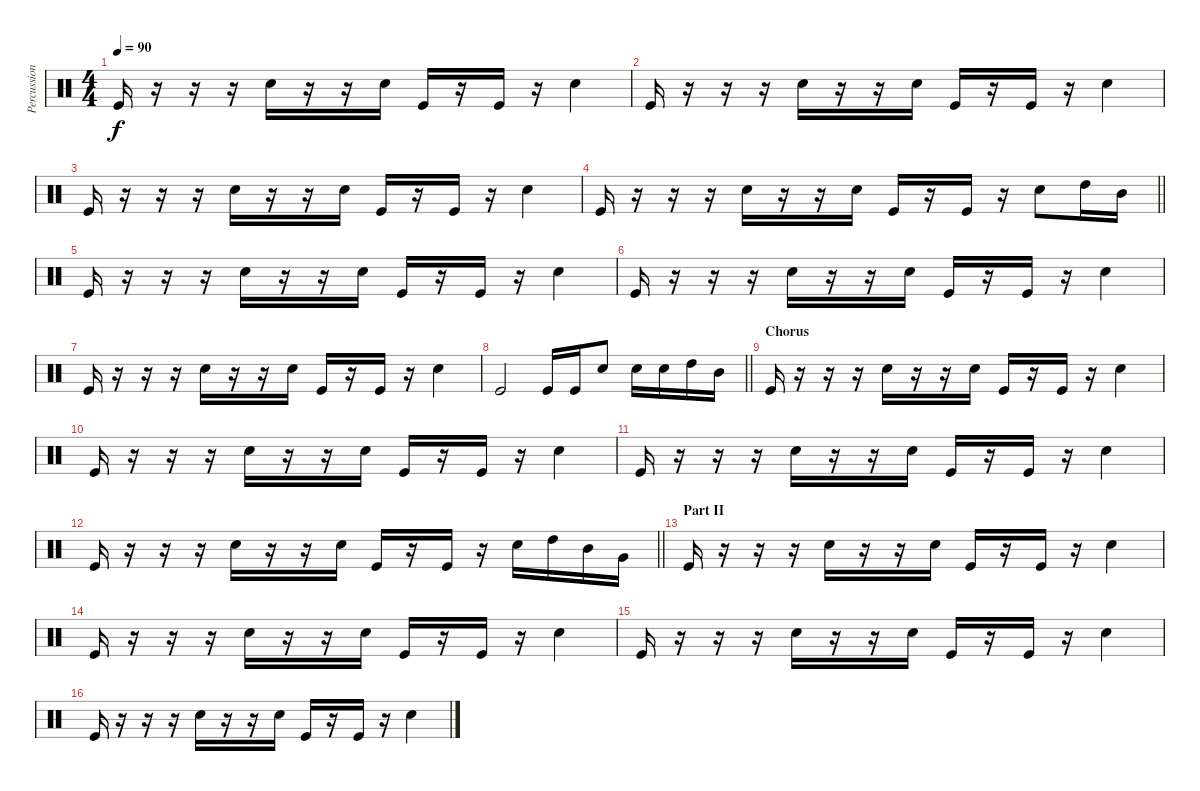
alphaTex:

\track ("Percussion" "Percussion") {instrument percussion}
\staff
\articulation defaults
\ts (4 4)
\tempo 90
\clef neutral
\ks c "Kick (hit)".16{dy f}
r.16 r.16 r.16 "Electric Snare (hit)".16 r.16 r.16 "Electric Snare (hit)".16 "Kick (hit)".16 r.16 "Kick (hit)".16 r.16 "Electric Snare (hit)".4 |
"Kick (hit)".16 r.16 r.16 r.16 "Electric Snare (hit)".16 r.16 r.16 "Electric Snare (hit)".16 "Kick (hit)".16 r.16 "Kick (hit)".16 r.16 "Electric Snare (hit)".4 |
"Kick (hit)".16 r.16 r.16 r.16 "Electric Snare (hit)".16 r.16 r.16 "Electric Snare (hit)".16 "Kick (hit)".16 r.16 "Kick (hit)".16 r.16 "Electric Snare (hit)".4 |
\barLineRight lightlight "Kick (hit)".16
r.16 r.16 r.16 "Electric Snare (hit)".16 r.16 r.16 "Electric Snare (hit)".16 "Kick (hit)".16 r.16 "Kick (hit)".16 r.16 "Electric Snare (hit)".8 "High Tom (hit)".16 "Mid Tom (hit)".16 |
"Kick (hit)".16 r.16 r.16 r.16 "Electric Snare (hit)".16 r.16 r.16 "Electric Snare (hit)".16 "Kick (hit)".16 r.16 "Kick (hit)".16 r.16 "Electric Snare (hit)".4 |
"Kick (hit)".16 r.16 r.16 r.16 "Electric Snare (hit)".16 r.16 r.16 "Electric Snare (hit)".16 "Kick (hit)".16 r.16 "Kick (hit)".16 r.16 "Electric Snare (hit)".4 |
"Kick (hit)".16 r.16 r.16 r.16 "Electric Snare (hit)".16 r.16 r.16 "Electric Snare (hit)".16 "Kick (hit)".16 r.16 "Kick (hit)".16 r.16 "Electric Snare (hit)".4 |
\barLineRight lightlight "Kick (hit)".2 "Kick (hit)".16 "Kick (hit)".16 "Electric Snare (hit)".8 "Electric Snare (hit)".16 "Electric Snare (hit)".16 "High Tom (hit)".16 "Mid Tom (hit)".16
|
\section ("" "Chorus ")
"Kick (hit)".16 r.16 r.16 r.16 "Electric Snare (hit)".16 r.16 r.16 "Electric Snare (hit)".16 "Kick (hit)".16 r.16 "Kick (hit)".16 r.16 "Electric Snare (hit)".4 |
"Kick (hit)".16 r.16 r.16 r.16 "Electric Snare (hit)".16 r.16 r.16 "Electric Snare (hit)".16 "Kick (hit)".16 r.16 "Kick (hit)".16 r.16 "Electric Snare (hit)".4 |
"Kick (hit)".16 r.16 r.16 r.16 "Electric Snare (hit)".16 r.16 r.16 "Electric Snare (hit)".16 "Kick (hit)".16 r.16 "Kick (hit)".16 r.16 "Electric Snare (hit)".4 |
\barLineRight lightlight "Kick (hit)".16
r.16 r.16 r.16 "Electric Snare (hit)".16 r.16 r.16 "Electric Snare (hit)".16 "Kick (hit)".16 r.16 "Kick (hit)".16 r.16 "Electric Snare (hit)".16 "High Tom (hit)".16 "Mid Tom (hit)".16 "Very Low Tom (hit)".16 |
\section ("" "Part II")
"Kick (hit)".16 r.16 r.16 r.16 "Electric Snare (hit)".16 r.16 r.16 "Electric Snare (hit)".16 "Kick (hit)".16 r.16 "Kick (hit)".16 r.16 "Electric Snare (hit)".4 |
"Kick (hit)".16 r.16 r.16 r.16 "Electric Snare (hit)".16 r.16 r.16 "Electric Snare (hit)".16 "Kick (hit)".16 r.16 "Kick (hit)".16 r.16 "Electric Snare (hit)".4 |
"Kick (hit)".16 r.16 r.16 r.16 "Electric Snare (hit)".16 r.16 r.16 "Electric Snare (hit)".16 "Kick (hit)".16 r.16 "Kick (hit)".16 r.16 "Electric Snare (hit)".4 |
"Kick (hit)".16 r.16 r.16 r.16 "Electric Snare (hit)".16 r.16 r.16 "Electric Snare (hit)".16 "Kick (hit)".16 r.16 "Kick (hit)".16 r.16 "Electric Snare (hit)".4
